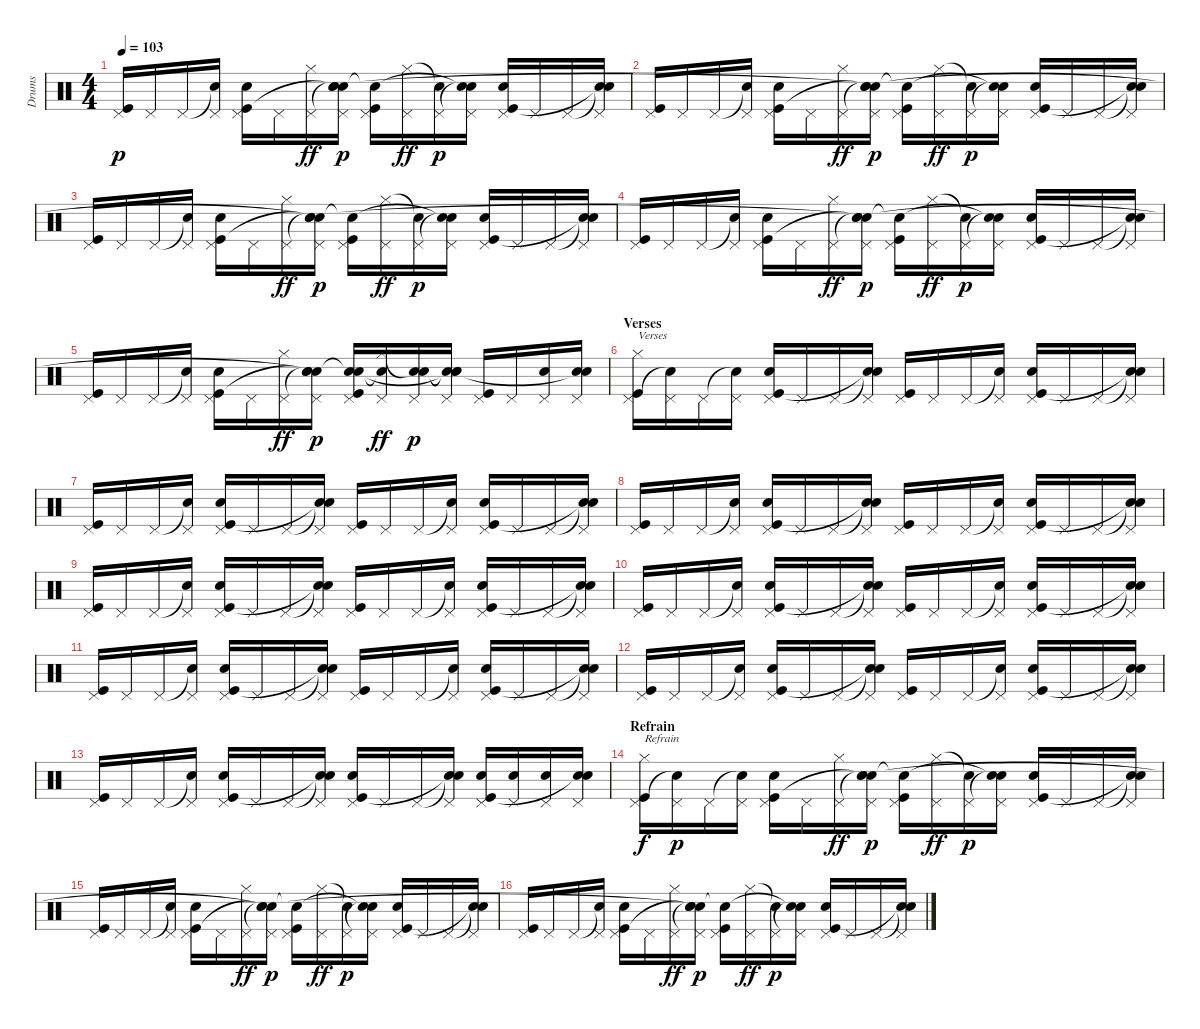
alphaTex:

\track ("Drums" "Drums") {instrument percussion}
\staff {score}
\articulation defaults
\ts (4 4)
\tempo 103
\clef neutral
\ks c
("Kick (hit)" "Pedal Hi-Hat (hit)").16{dy p} "Pedal Hi-Hat (hit)".16 "Pedal Hi-Hat (hit)".16 ("Electric Snare (hit)"{t} "Pedal Hi-Hat (hit)").16 ("Electric Snare (hit)" "Pedal Hi-Hat (hit)" "Kick (hit)").16 "Pedal Hi-Hat (hit)".16 ("Pedal Hi-Hat (hit)" "Hi-Hat (closed)").16{dy ff} ("Snare (hit)"{t} "Pedal Hi-Hat (hit)" "Snare (hit)"{t} "Snare (hit)"{t}).16{dy p} ("Kick (hit)" "Pedal Hi-Hat (hit)" "Snare (hit)"{t}).16 ("Pedal Hi-Hat (hit)" "Hi-Hat (closed)").16{dy ff} ("Pedal Hi-Hat (hit)" "Snare (hit)"{t}).16{dy p} ("Snare (hit)"{t} "Pedal Hi-Hat (hit)" "Snare (hit)"{t}).16 ("Electric Snare (hit)" "Pedal Hi-Hat (hit)" "Kick (hit)").16 "Pedal Hi-Hat (hit)".16 "Pedal Hi-Hat (hit)".16 ("Snare (hit)"{t} "Pedal Hi-Hat (hit)" "Snare (hit)"{t}).16 |
("Kick (hit)" "Pedal Hi-Hat (hit)").16 "Pedal Hi-Hat (hit)".16 "Pedal Hi-Hat (hit)".16 ("Electric Snare (hit)"{t} "Pedal Hi-Hat (hit)").16 ("Electric Snare (hit)" "Pedal Hi-Hat (hit)" "Kick (hit)").16 "Pedal Hi-Hat (hit)".16 ("Pedal Hi-Hat (hit)" "Hi-Hat (closed)").16{dy ff} ("Snare (hit)"{t} "Pedal Hi-Hat (hit)" "Snare (hit)"{t} "Snare (hit)"{t}).16{dy p} ("Kick (hit)" "Pedal Hi-Hat (hit)" "Snare (hit)"{t}).16 ("Pedal Hi-Hat (hit)" "Hi-Hat (closed)").16{dy ff} ("Pedal Hi-Hat (hit)" "Snare (hit)"{t}).16{dy p} ("Snare (hit)"{t} "Pedal Hi-Hat (hit)" "Snare (hit)"{t}).16 ("Electric Snare (hit)" "Pedal Hi-Hat (hit)" "Kick (hit)").16 "Pedal Hi-Hat (hit)".16 "Pedal Hi-Hat (hit)".16 ("Snare (hit)"{t} "Pedal Hi-Hat (hit)" "Snare (hit)"{t}).16 |
("Kick (hit)" "Pedal Hi-Hat (hit)").16 "Pedal Hi-Hat (hit)".16 "Pedal Hi-Hat (hit)".16 ("Electric Snare (hit)"{t} "Pedal Hi-Hat (hit)").16 ("Electric Snare (hit)" "Pedal Hi-Hat (hit)" "Kick (hit)").16 "Pedal Hi-Hat (hit)".16 ("Pedal Hi-Hat (hit)" "Hi-Hat (closed)").16{dy ff} ("Snare (hit)"{t} "Pedal Hi-Hat (hit)" "Snare (hit)"{t} "Snare (hit)"{t}).16{dy p} ("Kick (hit)" "Pedal Hi-Hat (hit)" "Snare (hit)"{t}).16 ("Pedal Hi-Hat (hit)" "Hi-Hat (closed)").16{dy ff} ("Pedal Hi-Hat (hit)" "Snare (hit)"{t}).16{dy p} ("Snare (hit)"{t} "Pedal Hi-Hat (hit)" "Snare (hit)"{t}).16 ("Electric Snare (hit)" "Pedal Hi-Hat (hit)" "Kick (hit)").16 "Pedal Hi-Hat (hit)".16 "Pedal Hi-Hat (hit)".16 ("Snare (hit)"{t} "Pedal Hi-Hat (hit)" "Snare (hit)"{t}).16 |
("Kick (hit)" "Pedal Hi-Hat (hit)").16 "Pedal Hi-Hat (hit)".16 "Pedal Hi-Hat (hit)".16 ("Electric Snare (hit)"{t} "Pedal Hi-Hat (hit)").16 ("Electric Snare (hit)" "Pedal Hi-Hat (hit)" "Kick (hit)").16 "Pedal Hi-Hat (hit)".16 ("Pedal Hi-Hat (hit)" "Hi-Hat (closed)").16{dy ff} ("Snare (hit)"{t} "Pedal Hi-Hat (hit)" "Snare (hit)"{t} "Snare (hit)"{t}).16{dy p} ("Kick (hit)" "Pedal Hi-Hat (hit)" "Snare (hit)"{t}).16 ("Pedal Hi-Hat (hit)" "Hi-Hat (closed)").16{dy ff} ("Pedal Hi-Hat (hit)" "Snare (hit)"{t}).16{dy p} ("Snare (hit)"{t} "Pedal Hi-Hat (hit)" "Snare (hit)"{t}).16 ("Electric Snare (hit)" "Pedal Hi-Hat (hit)" "Kick (hit)").16 "Pedal Hi-Hat (hit)".16 "Pedal Hi-Hat (hit)".16 ("Snare (hit)"{t} "Pedal Hi-Hat (hit)" "Snare (hit)"{t}).16 |
("Kick (hit)" "Pedal Hi-Hat (hit)").16 "Pedal Hi-Hat (hit)".16 "Pedal Hi-Hat (hit)".16 ("Electric Snare (hit)"{t} "Pedal Hi-Hat (hit)").16 ("Electric Snare (hit)" "Pedal Hi-Hat (hit)" "Kick (hit)").16 "Pedal Hi-Hat (hit)".16 ("Pedal Hi-Hat (hit)" "Hi-Hat (closed)").16{dy ff} ("Snare (hit)"{t} "Pedal Hi-Hat (hit)" "Snare (hit)"{t} "Snare (hit)"{t}).16{dy p} ("Electric Snare (hit)" "Pedal Hi-Hat (hit)" "Kick (hit)" "Snare (hit)"{t}).16 ("Snare (hit)"{t} "Pedal Hi-Hat (hit)" "Hi-Hat (closed)").16{dy ff} ("Electric Snare (hit)" "Pedal Hi-Hat (hit)" "Snare (hit)"{t}).16{dy p} ("Snare (hit)"{t} "Pedal Hi-Hat (hit)" "Snare (hit)"{t} "Snare (hit)"{t}).16 ("Pedal Hi-Hat (hit)" "Kick (hit)").16 "Pedal Hi-Hat (hit)".16 ("Electric Snare (hit)" "Pedal Hi-Hat (hit)").16 ("Electric Snare (hit)" "Pedal Hi-Hat (hit)" "Snare (hit)"{t}).16 |
\section ("" "Verses")
("Kick (hit)" "Pedal Hi-Hat (hit)" "Hi-Hat (closed)").16{txt "Verses"} ("Pedal Hi-Hat (hit)" "Snare (hit)"{t}).16 "Pedal Hi-Hat (hit)".16 ("Electric Snare (hit)"{t} "Pedal Hi-Hat (hit)").16 ("Electric Snare (hit)" "Pedal Hi-Hat (hit)" "Kick (hit)").16 "Pedal Hi-Hat (hit)".16 "Pedal Hi-Hat (hit)".16 ("Snare (hit)"{t} "Pedal Hi-Hat (hit)" "Snare (hit)"{t}).16 ("Kick (hit)" "Pedal Hi-Hat (hit)").16 "Pedal Hi-Hat (hit)".16 "Pedal Hi-Hat (hit)".16 ("Snare (hit)"{t} "Pedal Hi-Hat (hit)").16 ("Electric Snare (hit)" "Pedal Hi-Hat (hit)" "Kick (hit)").16 "Pedal Hi-Hat (hit)".16 "Pedal Hi-Hat (hit)".16 ("Snare (hit)"{t} "Pedal Hi-Hat (hit)" "Snare (hit)"{t}).16 |
("Kick (hit)" "Pedal Hi-Hat (hit)").16 "Pedal Hi-Hat (hit)".16 "Pedal Hi-Hat (hit)".16 ("Electric Snare (hit)"{t} "Pedal Hi-Hat (hit)").16 ("Electric Snare (hit)" "Pedal Hi-Hat (hit)" "Kick (hit)").16 "Pedal Hi-Hat (hit)".16 "Pedal Hi-Hat (hit)".16 ("Snare (hit)"{t} "Pedal Hi-Hat (hit)" "Snare (hit)"{t}).16 ("Kick (hit)" "Pedal Hi-Hat (hit)").16 "Pedal Hi-Hat (hit)".16 "Pedal Hi-Hat (hit)".16 ("Snare (hit)"{t} "Pedal Hi-Hat (hit)").16 ("Electric Snare (hit)" "Pedal Hi-Hat (hit)" "Kick (hit)").16 "Pedal Hi-Hat (hit)".16 "Pedal Hi-Hat (hit)".16 ("Snare (hit)"{t} "Pedal Hi-Hat (hit)" "Snare (hit)"{t}).16 |
("Kick (hit)" "Pedal Hi-Hat (hit)").16 "Pedal Hi-Hat (hit)".16 "Pedal Hi-Hat (hit)".16 ("Electric Snare (hit)"{t} "Pedal Hi-Hat (hit)").16 ("Electric Snare (hit)" "Pedal Hi-Hat (hit)" "Kick (hit)").16 "Pedal Hi-Hat (hit)".16 "Pedal Hi-Hat (hit)".16 ("Snare (hit)"{t} "Pedal Hi-Hat (hit)" "Snare (hit)"{t}).16 ("Kick (hit)" "Pedal Hi-Hat (hit)").16 "Pedal Hi-Hat (hit)".16 "Pedal Hi-Hat (hit)".16 ("Snare (hit)"{t} "Pedal Hi-Hat (hit)").16 ("Electric Snare (hit)" "Pedal Hi-Hat (hit)" "Kick (hit)").16 "Pedal Hi-Hat (hit)".16 "Pedal Hi-Hat (hit)".16 ("Snare (hit)"{t} "Pedal Hi-Hat (hit)" "Snare (hit)"{t}).16 |
("Kick (hit)" "Pedal Hi-Hat (hit)").16 "Pedal Hi-Hat (hit)".16 "Pedal Hi-Hat (hit)".16 ("Electric Snare (hit)"{t} "Pedal Hi-Hat (hit)").16 ("Electric Snare (hit)" "Pedal Hi-Hat (hit)" "Kick (hit)").16 "Pedal Hi-Hat (hit)".16 "Pedal Hi-Hat (hit)".16 ("Snare (hit)"{t} "Pedal Hi-Hat (hit)" "Snare (hit)"{t}).16 ("Kick (hit)" "Pedal Hi-Hat (hit)").16 "Pedal Hi-Hat (hit)".16 "Pedal Hi-Hat (hit)".16 ("Snare (hit)"{t} "Pedal Hi-Hat (hit)").16 ("Electric Snare (hit)" "Pedal Hi-Hat (hit)" "Kick (hit)").16 "Pedal Hi-Hat (hit)".16 "Pedal Hi-Hat (hit)".16 ("Snare (hit)"{t} "Pedal Hi-Hat (hit)" "Snare (hit)"{t}).16 |
("Kick (hit)" "Pedal Hi-Hat (hit)").16 "Pedal Hi-Hat (hit)".16 "Pedal Hi-Hat (hit)".16 ("Electric Snare (hit)"{t} "Pedal Hi-Hat (hit)").16 ("Electric Snare (hit)" "Pedal Hi-Hat (hit)" "Kick (hit)").16 "Pedal Hi-Hat (hit)".16 "Pedal Hi-Hat (hit)".16 ("Snare (hit)"{t} "Pedal Hi-Hat (hit)" "Snare (hit)"{t}).16 ("Kick (hit)" "Pedal Hi-Hat (hit)").16 "Pedal Hi-Hat (hit)".16 "Pedal Hi-Hat (hit)".16 ("Snare (hit)"{t} "Pedal Hi-Hat (hit)").16 ("Electric Snare (hit)" "Pedal Hi-Hat (hit)" "Kick (hit)").16 "Pedal Hi-Hat (hit)".16 "Pedal Hi-Hat (hit)".16 ("Snare (hit)"{t} "Pedal Hi-Hat (hit)" "Snare (hit)"{t}).16 |
("Kick (hit)" "Pedal Hi-Hat (hit)").16 "Pedal Hi-Hat (hit)".16 "Pedal Hi-Hat (hit)".16 ("Electric Snare (hit)"{t} "Pedal Hi-Hat (hit)").16 ("Electric Snare (hit)" "Pedal Hi-Hat (hit)" "Kick (hit)").16 "Pedal Hi-Hat (hit)".16 "Pedal Hi-Hat (hit)".16 ("Snare (hit)"{t} "Pedal Hi-Hat (hit)" "Snare (hit)"{t}).16 ("Kick (hit)" "Pedal Hi-Hat (hit)").16 "Pedal Hi-Hat (hit)".16 "Pedal Hi-Hat (hit)".16 ("Snare (hit)"{t} "Pedal Hi-Hat (hit)").16 ("Electric Snare (hit)" "Pedal Hi-Hat (hit)" "Kick (hit)").16 "Pedal Hi-Hat (hit)".16 "Pedal Hi-Hat (hit)".16 ("Snare (hit)"{t} "Pedal Hi-Hat (hit)" "Snare (hit)"{t}).16 |
("Kick (hit)" "Pedal Hi-Hat (hit)").16 "Pedal Hi-Hat (hit)".16 "Pedal Hi-Hat (hit)".16 ("Electric Snare (hit)"{t} "Pedal Hi-Hat (hit)").16 ("Electric Snare (hit)" "Pedal Hi-Hat (hit)" "Kick (hit)").16 "Pedal Hi-Hat (hit)".16 "Pedal Hi-Hat (hit)".16 ("Snare (hit)"{t} "Pedal Hi-Hat (hit)" "Snare (hit)"{t}).16 ("Kick (hit)" "Pedal Hi-Hat (hit)").16 "Pedal Hi-Hat (hit)".16 "Pedal Hi-Hat (hit)".16 ("Snare (hit)"{t} "Pedal Hi-Hat (hit)").16 ("Electric Snare (hit)" "Pedal Hi-Hat (hit)" "Kick (hit)").16 "Pedal Hi-Hat (hit)".16 "Pedal Hi-Hat (hit)".16 ("Snare (hit)"{t} "Pedal Hi-Hat (hit)" "Snare (hit)"{t}).16 |
("Kick (hit)" "Pedal Hi-Hat (hit)").16 "Pedal Hi-Hat (hit)".16 "Pedal Hi-Hat (hit)".16 ("Electric Snare (hit)"{t} "Pedal Hi-Hat (hit)").16 ("Electric Snare (hit)" "Pedal Hi-Hat (hit)" "Kick (hit)").16 "Pedal Hi-Hat (hit)".16 "Pedal Hi-Hat (hit)".16 ("Snare (hit)"{t} "Pedal Hi-Hat (hit)" "Snare (hit)"{t}).16 ("Electric Snare (hit)" "Pedal Hi-Hat (hit)" "Kick (hit)").16 "Pedal Hi-Hat (hit)".16 "Pedal Hi-Hat (hit)".16 ("Electric Snare (hit)"{t} "Pedal Hi-Hat (hit)" "Snare (hit)"{t}).16 ("Electric Snare (hit)" "Pedal Hi-Hat (hit)" "Kick (hit)").16 ("Electric Snare (hit)" "Pedal Hi-Hat (hit)").16 ("Electric Snare (hit)" "Pedal Hi-Hat (hit)").16 ("Electric Snare (hit)" "Pedal Hi-Hat (hit)" "Snare (hit)"{t}).16 |
\section ("" "Refrain")
("Kick (hit)" "Pedal Hi-Hat (hit)" "Hi-Hat (closed)").16{txt "Refrain" dy f} ("Pedal Hi-Hat (hit)" "Snare (hit)"{t}).16{dy p} "Pedal Hi-Hat (hit)".16 ("Electric Snare (hit)"{t} "Pedal Hi-Hat (hit)").16 ("Electric Snare (hit)" "Pedal Hi-Hat (hit)" "Kick (hit)").16 "Pedal Hi-Hat (hit)".16 ("Pedal Hi-Hat (hit)" "Hi-Hat (closed)").16{dy ff} ("Snare (hit)"{t} "Pedal Hi-Hat (hit)" "Snare (hit)"{t} "Snare (hit)").16{dy p} ("Kick (hit)" "Pedal Hi-Hat (hit)" "Snare (hit)"{t}).16 ("Pedal Hi-Hat (hit)" "Hi-Hat (closed)").16{dy ff} ("Pedal Hi-Hat (hit)" "Snare (hit)"{t}).16{dy p} ("Snare (hit)"{t} "Pedal Hi-Hat (hit)" "Snare (hit)"{t}).16 ("Electric Snare (hit)" "Pedal Hi-Hat (hit)" "Kick (hit)").16 "Pedal Hi-Hat (hit)".16 "Pedal Hi-Hat (hit)".16 ("Snare (hit)"{t} "Pedal Hi-Hat (hit)" "Snare (hit)"{t}).16 |
("Kick (hit)" "Pedal Hi-Hat (hit)").16 "Pedal Hi-Hat (hit)".16 "Pedal Hi-Hat (hit)".16 ("Electric Snare (hit)"{t} "Pedal Hi-Hat (hit)").16 ("Electric Snare (hit)" "Pedal Hi-Hat (hit)" "Kick (hit)").16 "Pedal Hi-Hat (hit)".16 ("Pedal Hi-Hat (hit)" "Hi-Hat (closed)").16{dy ff} ("Snare (hit)"{t} "Pedal Hi-Hat (hit)" "Snare (hit)"{t} "Snare (hit)"{t}).16{dy p} ("Kick (hit)" "Pedal Hi-Hat (hit)" "Snare (hit)"{t}).16 ("Pedal Hi-Hat (hit)" "Hi-Hat (closed)").16{dy ff} ("Pedal Hi-Hat (hit)" "Snare (hit)"{t}).16{dy p} ("Snare (hit)"{t} "Pedal Hi-Hat (hit)" "Snare (hit)"{t}).16 ("Electric Snare (hit)" "Pedal Hi-Hat (hit)" "Kick (hit)").16 "Pedal Hi-Hat (hit)".16 "Pedal Hi-Hat (hit)".16 ("Snare (hit)"{t} "Pedal Hi-Hat (hit)" "Snare (hit)"{t}).16 |
("Kick (hit)" "Pedal Hi-Hat (hit)").16 "Pedal Hi-Hat (hit)".16 "Pedal Hi-Hat (hit)".16 ("Electric Snare (hit)"{t} "Pedal Hi-Hat (hit)").16 ("Electric Snare (hit)" "Pedal Hi-Hat (hit)" "Kick (hit)").16 "Pedal Hi-Hat (hit)".16 ("Pedal Hi-Hat (hit)" "Hi-Hat (closed)").16{dy ff} ("Snare (hit)"{t} "Pedal Hi-Hat (hit)" "Snare (hit)"{t} "Snare (hit)"{t}).16{dy p} ("Kick (hit)" "Pedal Hi-Hat (hit)" "Snare (hit)"{t}).16 ("Pedal Hi-Hat (hit)" "Hi-Hat (closed)").16{dy ff} ("Pedal Hi-Hat (hit)" "Snare (hit)"{t}).16{dy p} ("Snare (hit)"{t} "Pedal Hi-Hat (hit)" "Snare (hit)"{t}).16 ("Electric Snare (hit)" "Pedal Hi-Hat (hit)" "Kick (hit)").16 "Pedal Hi-Hat (hit)".16 "Pedal Hi-Hat (hit)".16 ("Snare (hit)"{t} "Pedal Hi-Hat (hit)" "Snare (hit)"{t}).16
